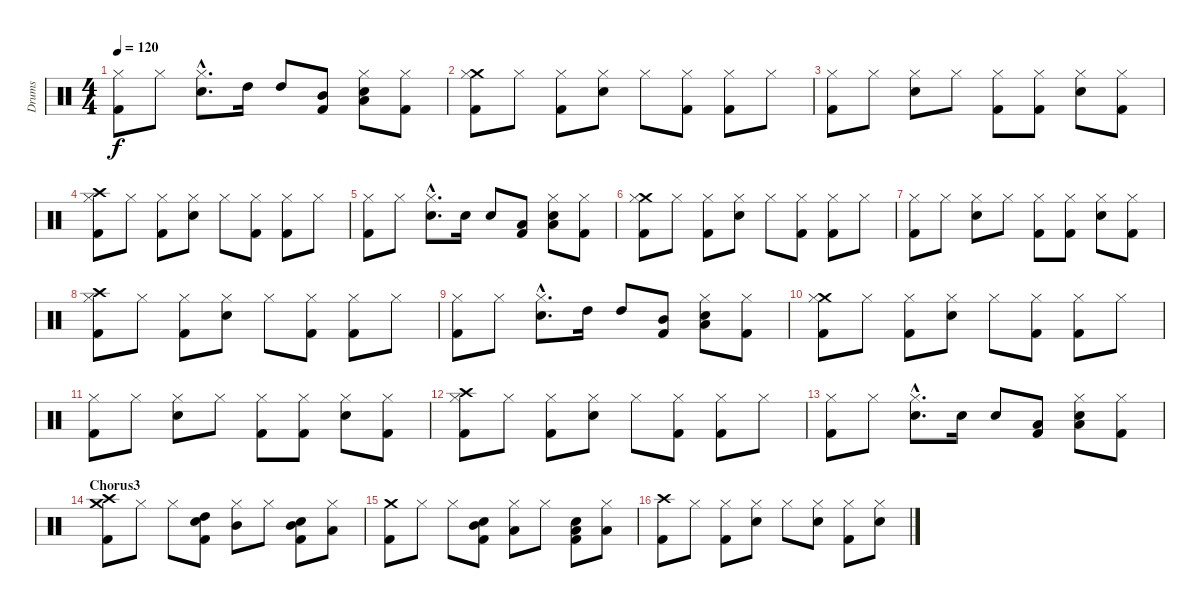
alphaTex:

\track ("Drums" "Drums") {instrument percussion}
\staff {score}
\articulation defaults
\ts (4 4)
\tempo 120
\clef neutral
\ks c
("Hi-Hat (closed)" "Kick (hit) 2").8{dy f} "Hi-Hat (closed)".8 ("Hi-Hat (closed)"{hac} "Snare (hit) 2"{hac}).8{d} "High Tom (hit)".16 "High Tom (hit)".8 ("Mid Tom (hit)" "Kick (hit) 2").8 ("Hi-Hat (closed)" "Low Tom (hit)" "Snare (hit) 2").8 ("Hi-Hat (closed)" "Kick (hit) 2").8 |
("Crash medium (hit)" "Hi-Hat (closed)" "Kick (hit) 2").8 "Hi-Hat (closed)".8 ("Hi-Hat (closed)" "Kick (hit) 2").8 ("Hi-Hat (closed)" "Snare (hit) 2").8 "Hi-Hat (closed)".8 ("Hi-Hat (closed)" "Kick (hit) 2").8 ("Hi-Hat (closed)" "Kick (hit) 2").8 "Hi-Hat (closed)".8 |
("Hi-Hat (closed)" "Kick (hit) 2").8 "Hi-Hat (closed)".8 ("Hi-Hat (closed)" "Snare (hit) 2").8 "Hi-Hat (closed)".8 ("Hi-Hat (closed)" "Kick (hit) 2").8 ("Hi-Hat (closed)" "Kick (hit) 2").8 ("Hi-Hat (closed)" "Snare (hit) 2").8 ("Hi-Hat (closed)" "Kick (hit) 2").8 |
("Crash high (hit)" "Hi-Hat (closed)" "Kick (hit) 2").8 "Hi-Hat (closed)".8 ("Hi-Hat (closed)" "Kick (hit) 2").8 ("Hi-Hat (closed)" "Snare (hit) 2").8 "Hi-Hat (closed)".8 ("Hi-Hat (closed)" "Kick (hit) 2").8 ("Hi-Hat (closed)" "Kick (hit) 2").8 "Hi-Hat (closed)".8 |
("Hi-Hat (closed)" "Kick (hit) 2").8 "Hi-Hat (closed)".8 ("Hi-Hat (closed)"{hac} "Snare (hit) 2"{hac}).8{d} "Snare (hit) 2".16 "Snare (hit) 2".8 ("Low Tom (hit)" "Kick (hit) 2").8 ("Hi-Hat (closed)" "Low Tom (hit)" "Snare (hit) 2").8 ("Hi-Hat (closed)" "Kick (hit) 2").8 |
("Crash medium (hit)" "Hi-Hat (closed)" "Kick (hit) 2").8 "Hi-Hat (closed)".8 ("Hi-Hat (closed)" "Kick (hit) 2").8 ("Hi-Hat (closed)" "Snare (hit) 2").8 "Hi-Hat (closed)".8 ("Hi-Hat (closed)" "Kick (hit) 2").8 ("Hi-Hat (closed)" "Kick (hit) 2").8 "Hi-Hat (closed)".8 |
("Hi-Hat (closed)" "Kick (hit) 2").8 "Hi-Hat (closed)".8 ("Hi-Hat (closed)" "Snare (hit) 2").8 "Hi-Hat (closed)".8 ("Hi-Hat (closed)" "Kick (hit) 2").8 ("Hi-Hat (closed)" "Kick (hit) 2").8 ("Hi-Hat (closed)" "Snare (hit) 2").8 ("Hi-Hat (closed)" "Kick (hit) 2").8 |
("Crash high (hit)" "Hi-Hat (closed)" "Kick (hit) 2").8 "Hi-Hat (closed)".8 ("Hi-Hat (closed)" "Kick (hit) 2").8 ("Hi-Hat (closed)" "Snare (hit) 2").8 "Hi-Hat (closed)".8 ("Hi-Hat (closed)" "Kick (hit) 2").8 ("Hi-Hat (closed)" "Kick (hit) 2").8 "Hi-Hat (closed)".8 |
("Hi-Hat (closed)" "Kick (hit) 2").8 "Hi-Hat (closed)".8 ("Hi-Hat (closed)"{hac} "Snare (hit) 2"{hac}).8{d} "High Tom (hit)".16 "High Tom (hit)".8 ("Mid Tom (hit)" "Kick (hit) 2").8 ("Hi-Hat (closed)" "Low Tom (hit)" "Snare (hit) 2").8 ("Hi-Hat (closed)" "Kick (hit) 2").8 |
("Crash medium (hit)" "Hi-Hat (closed)" "Kick (hit) 2").8 "Hi-Hat (closed)".8 ("Hi-Hat (closed)" "Kick (hit) 2").8 ("Hi-Hat (closed)" "Snare (hit) 2").8 "Hi-Hat (closed)".8 ("Hi-Hat (closed)" "Kick (hit) 2").8 ("Hi-Hat (closed)" "Kick (hit) 2").8 "Hi-Hat (closed)".8 |
("Hi-Hat (closed)" "Kick (hit) 2").8 "Hi-Hat (closed)".8 ("Hi-Hat (closed)" "Snare (hit) 2").8 "Hi-Hat (closed)".8 ("Hi-Hat (closed)" "Kick (hit) 2").8 ("Hi-Hat (closed)" "Kick (hit) 2").8 ("Hi-Hat (closed)" "Snare (hit) 2").8 ("Hi-Hat (closed)" "Kick (hit) 2").8 |
("Crash high (hit)" "Hi-Hat (closed)" "Kick (hit) 2").8 "Hi-Hat (closed)".8 ("Hi-Hat (closed)" "Kick (hit) 2").8 ("Hi-Hat (closed)" "Snare (hit) 2").8 "Hi-Hat (closed)".8 ("Hi-Hat (closed)" "Kick (hit) 2").8 ("Hi-Hat (closed)" "Kick (hit) 2").8 "Hi-Hat (closed)".8 |
("Hi-Hat (closed)" "Kick (hit) 2").8 "Hi-Hat (closed)".8 ("Hi-Hat (closed)"{hac} "Snare (hit) 2"{hac}).8{d} "Snare (hit) 2".16 "Snare (hit) 2".8 ("Low Tom (hit)" "Kick (hit) 2").8 ("Hi-Hat (closed)" "Low Tom (hit)" "Snare (hit) 2").8 ("Hi-Hat (closed)" "Kick (hit) 2").8 |
\section ("" "Chorus3")
("Crash medium (hit)" "Crash high (hit)" "Kick (hit) 2").8 "Hi-Hat (closed)".8 "Hi-Hat (closed)".8 ("High Tom (hit)" "Snare (hit) 2" "Kick (hit) 2").8 ("Hi-Hat (closed)" "Mid Tom (hit)").8 "Hi-Hat (closed)".8 ("Mid Tom (hit)" "Snare (hit) 2" "Kick (hit) 2").8 ("Hi-Hat (closed)" "Low Tom (hit)").8 |
("Crash medium (hit)" "Kick (hit) 2").8 "Hi-Hat (closed)".8 "Hi-Hat (closed)".8 ("Mid Tom (hit)" "Snare (hit) 2" "Kick (hit) 2").8 ("Hi-Hat (closed)" "Low Tom (hit)").8 "Hi-Hat (closed)".8 ("Low Tom (hit)" "Snare (hit) 2" "Kick (hit) 2").8 ("Hi-Hat (closed)" "Low Floor Tom (hit)").8 |
("Crash high (hit)" "Kick (hit) 2").8 "Hi-Hat (closed)".8 ("Hi-Hat (closed)" "Kick (hit) 2").8 ("Hi-Hat (closed)" "Snare (hit) 2").8 "Hi-Hat (closed)".8 ("Hi-Hat (closed)" "Snare (hit) 2").8 ("Hi-Hat (closed)" "Kick (hit) 2").8 ("Hi-Hat (closed)" "Snare (hit) 2").8
